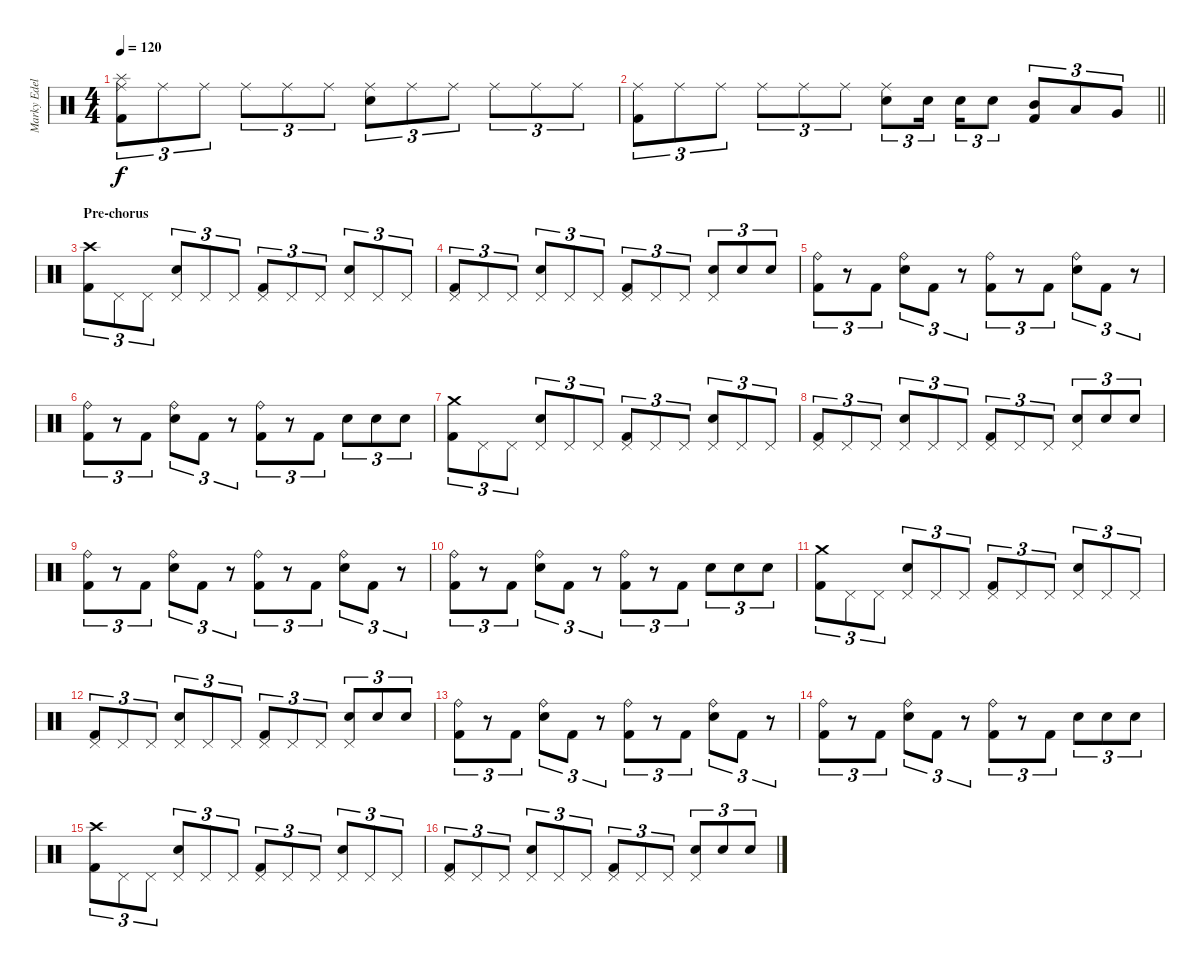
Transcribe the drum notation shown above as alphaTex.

\track ("Marky Edelmann" "Marky Edel") {instrument percussion}
\staff {score}
\articulation defaults
\ts (4 4)
\tempo 120
\clef neutral
\ks c
("Ride (middle)" "Splash (hit)" "Kick (hit) 2").8{tu (3 2) dy f} "Ride (middle)".8{tu (3 2)} "Ride (middle)".8{tu (3 2)} "Ride (middle)".8{tu (3 2)} "Ride (middle)".8{tu (3 2)} "Ride (middle)".8{tu (3 2)} ("Ride (middle)" "Snare (hit) 2").8{tu (3 2)} "Ride (middle)".8{tu (3 2)} "Ride (middle)".8{tu (3 2)} "Ride (middle)".8{tu (3 2)} "Ride (middle)".8{tu (3 2)} "Ride (middle)".8{tu (3 2)} |
\barLineRight lightlight
("Ride (middle)" "Kick (hit) 2").8{tu (3 2)} "Ride (middle)".8{tu (3 2)} "Ride (middle)".8{tu (3 2)} "Ride (middle)".8{tu (3 2)} "Ride (middle)".8{tu (3 2)} "Ride (middle)".8{tu (3 2)} ("Ride (middle)" "Snare (hit) 2").8{tu (3 2)} "Snare (hit) 2".16{tu (3 2) beam splitsecondary} "Snare (hit) 2".16{tu (3 2)} "Snare (hit) 2".8{tu (3 2)} ("Mid Tom (hit)" "Kick (hit) 2").8{tu (3 2)} "Low Tom (hit)".8{tu (3 2)} "Very Low Tom (hit)".8{tu (3 2)} |
\section ("" "Pre-chorus")
("Crash high (hit)" "Kick (hit) 2").8{tu (3 2)} "Pedal Hi-Hat (hit)".8{tu (3 2)} "Pedal Hi-Hat (hit)".8{tu (3 2)} ("Pedal Hi-Hat (hit)" "Snare (hit) 2").8{tu (3 2)} "Pedal Hi-Hat (hit)".8{tu (3 2)} "Pedal Hi-Hat (hit)".8{tu (3 2)} ("Pedal Hi-Hat (hit)" "Kick (hit) 2").8{tu (3 2)} "Pedal Hi-Hat (hit)".8{tu (3 2)} "Pedal Hi-Hat (hit)".8{tu (3 2)} ("Pedal Hi-Hat (hit)" "Snare (hit) 2").8{tu (3 2)} "Pedal Hi-Hat (hit)".8{tu (3 2)} "Pedal Hi-Hat (hit)".8{tu (3 2)} |
("Pedal Hi-Hat (hit)" "Kick (hit) 2").8{tu (3 2)} "Pedal Hi-Hat (hit)".8{tu (3 2)} "Pedal Hi-Hat (hit)".8{tu (3 2)} ("Pedal Hi-Hat (hit)" "Snare (hit) 2").8{tu (3 2)} "Pedal Hi-Hat (hit)".8{tu (3 2)} "Pedal Hi-Hat (hit)".8{tu (3 2)} ("Pedal Hi-Hat (hit)" "Kick (hit) 2").8{tu (3 2)} "Pedal Hi-Hat (hit)".8{tu (3 2)} "Pedal Hi-Hat (hit)".8{tu (3 2)} ("Pedal Hi-Hat (hit)" "Snare (hit) 2").8{tu (3 2)} "Snare (hit) 2".8{tu (3 2)} "Snare (hit) 2".8{tu (3 2)} |
("Ride (bell)" "Kick (hit) 2").8{tu (3 2)} r.8{tu (3 2)} "Kick (hit) 2".8{tu (3 2)} ("Ride (bell)" "Snare (hit) 2").8{tu (3 2)} "Kick (hit) 2".8{tu (3 2)} r.8{tu (3 2)} ("Ride (bell)" "Kick (hit) 2").8{tu (3 2)} r.8{tu (3 2)} "Kick (hit) 2".8{tu (3 2)} ("Ride (bell)" "Snare (hit) 2").8{tu (3 2)} "Kick (hit) 2".8{tu (3 2)} r.8{tu (3 2)} |
("Ride (bell)" "Kick (hit) 2").8{tu (3 2)} r.8{tu (3 2)} "Kick (hit) 2".8{tu (3 2)} ("Ride (bell)" "Snare (hit) 2").8{tu (3 2)} "Kick (hit) 2".8{tu (3 2)} r.8{tu (3 2)} ("Ride (bell)" "Kick (hit) 2").8{tu (3 2)} r.8{tu (3 2)} "Kick (hit) 2".8{tu (3 2)} "Snare (hit) 2".8{tu (3 2)} "Snare (hit) 2".8{tu (3 2)} "Snare (hit) 2".8{tu (3 2)} |
("Crash medium (hit)" "Kick (hit) 2").8{tu (3 2)} "Pedal Hi-Hat (hit)".8{tu (3 2)} "Pedal Hi-Hat (hit)".8{tu (3 2)} ("Pedal Hi-Hat (hit)" "Snare (hit) 2").8{tu (3 2)} "Pedal Hi-Hat (hit)".8{tu (3 2)} "Pedal Hi-Hat (hit)".8{tu (3 2)} ("Pedal Hi-Hat (hit)" "Kick (hit) 2").8{tu (3 2)} "Pedal Hi-Hat (hit)".8{tu (3 2)} "Pedal Hi-Hat (hit)".8{tu (3 2)} ("Pedal Hi-Hat (hit)" "Snare (hit) 2").8{tu (3 2)} "Pedal Hi-Hat (hit)".8{tu (3 2)} "Pedal Hi-Hat (hit)".8{tu (3 2)} |
("Pedal Hi-Hat (hit)" "Kick (hit) 2").8{tu (3 2)} "Pedal Hi-Hat (hit)".8{tu (3 2)} "Pedal Hi-Hat (hit)".8{tu (3 2)} ("Pedal Hi-Hat (hit)" "Snare (hit) 2").8{tu (3 2)} "Pedal Hi-Hat (hit)".8{tu (3 2)} "Pedal Hi-Hat (hit)".8{tu (3 2)} ("Pedal Hi-Hat (hit)" "Kick (hit) 2").8{tu (3 2)} "Pedal Hi-Hat (hit)".8{tu (3 2)} "Pedal Hi-Hat (hit)".8{tu (3 2)} ("Pedal Hi-Hat (hit)" "Snare (hit) 2").8{tu (3 2)} "Snare (hit) 2".8{tu (3 2)} "Snare (hit) 2".8{tu (3 2)} |
("Ride (bell)" "Kick (hit) 2").8{tu (3 2)} r.8{tu (3 2)} "Kick (hit) 2".8{tu (3 2)} ("Ride (bell)" "Snare (hit) 2").8{tu (3 2)} "Kick (hit) 2".8{tu (3 2)} r.8{tu (3 2)} ("Ride (bell)" "Kick (hit) 2").8{tu (3 2)} r.8{tu (3 2)} "Kick (hit) 2".8{tu (3 2)} ("Ride (bell)" "Snare (hit) 2").8{tu (3 2)} "Kick (hit) 2".8{tu (3 2)} r.8{tu (3 2)} |
("Ride (bell)" "Kick (hit) 2").8{tu (3 2)} r.8{tu (3 2)} "Kick (hit) 2".8{tu (3 2)} ("Ride (bell)" "Snare (hit) 2").8{tu (3 2)} "Kick (hit) 2".8{tu (3 2)} r.8{tu (3 2)} ("Ride (bell)" "Kick (hit) 2").8{tu (3 2)} r.8{tu (3 2)} "Kick (hit) 2".8{tu (3 2)} "Snare (hit) 2".8{tu (3 2)} "Snare (hit) 2".8{tu (3 2)} "Snare (hit) 2".8{tu (3 2)} |
("Crash medium (hit)" "Kick (hit) 2").8{tu (3 2)} "Pedal Hi-Hat (hit)".8{tu (3 2)} "Pedal Hi-Hat (hit)".8{tu (3 2)} ("Pedal Hi-Hat (hit)" "Snare (hit) 2").8{tu (3 2)} "Pedal Hi-Hat (hit)".8{tu (3 2)} "Pedal Hi-Hat (hit)".8{tu (3 2)} ("Pedal Hi-Hat (hit)" "Kick (hit) 2").8{tu (3 2)} "Pedal Hi-Hat (hit)".8{tu (3 2)} "Pedal Hi-Hat (hit)".8{tu (3 2)} ("Pedal Hi-Hat (hit)" "Snare (hit) 2").8{tu (3 2)} "Pedal Hi-Hat (hit)".8{tu (3 2)} "Pedal Hi-Hat (hit)".8{tu (3 2)} |
("Pedal Hi-Hat (hit)" "Kick (hit) 2").8{tu (3 2)} "Pedal Hi-Hat (hit)".8{tu (3 2)} "Pedal Hi-Hat (hit)".8{tu (3 2)} ("Pedal Hi-Hat (hit)" "Snare (hit) 2").8{tu (3 2)} "Pedal Hi-Hat (hit)".8{tu (3 2)} "Pedal Hi-Hat (hit)".8{tu (3 2)} ("Pedal Hi-Hat (hit)" "Kick (hit) 2").8{tu (3 2)} "Pedal Hi-Hat (hit)".8{tu (3 2)} "Pedal Hi-Hat (hit)".8{tu (3 2)} ("Pedal Hi-Hat (hit)" "Snare (hit) 2").8{tu (3 2)} "Snare (hit) 2".8{tu (3 2)} "Snare (hit) 2".8{tu (3 2)} |
("Ride (bell)" "Kick (hit) 2").8{tu (3 2)} r.8{tu (3 2)} "Kick (hit) 2".8{tu (3 2)} ("Ride (bell)" "Snare (hit) 2").8{tu (3 2)} "Kick (hit) 2".8{tu (3 2)} r.8{tu (3 2)} ("Ride (bell)" "Kick (hit) 2").8{tu (3 2)} r.8{tu (3 2)} "Kick (hit) 2".8{tu (3 2)} ("Ride (bell)" "Snare (hit) 2").8{tu (3 2)} "Kick (hit) 2".8{tu (3 2)} r.8{tu (3 2)} |
("Ride (bell)" "Kick (hit) 2").8{tu (3 2)} r.8{tu (3 2)} "Kick (hit) 2".8{tu (3 2)} ("Ride (bell)" "Snare (hit) 2").8{tu (3 2)} "Kick (hit) 2".8{tu (3 2)} r.8{tu (3 2)} ("Ride (bell)" "Kick (hit) 2").8{tu (3 2)} r.8{tu (3 2)} "Kick (hit) 2".8{tu (3 2)} "Snare (hit) 2".8{tu (3 2)} "Snare (hit) 2".8{tu (3 2)} "Snare (hit) 2".8{tu (3 2)} |
("Crash high (hit)" "Kick (hit) 2").8{tu (3 2)} "Pedal Hi-Hat (hit)".8{tu (3 2)} "Pedal Hi-Hat (hit)".8{tu (3 2)} ("Pedal Hi-Hat (hit)" "Snare (hit) 2").8{tu (3 2)} "Pedal Hi-Hat (hit)".8{tu (3 2)} "Pedal Hi-Hat (hit)".8{tu (3 2)} ("Pedal Hi-Hat (hit)" "Kick (hit) 2").8{tu (3 2)} "Pedal Hi-Hat (hit)".8{tu (3 2)} "Pedal Hi-Hat (hit)".8{tu (3 2)} ("Pedal Hi-Hat (hit)" "Snare (hit) 2").8{tu (3 2)} "Pedal Hi-Hat (hit)".8{tu (3 2)} "Pedal Hi-Hat (hit)".8{tu (3 2)} |
("Pedal Hi-Hat (hit)" "Kick (hit) 2").8{tu (3 2)} "Pedal Hi-Hat (hit)".8{tu (3 2)} "Pedal Hi-Hat (hit)".8{tu (3 2)} ("Pedal Hi-Hat (hit)" "Snare (hit) 2").8{tu (3 2)} "Pedal Hi-Hat (hit)".8{tu (3 2)} "Pedal Hi-Hat (hit)".8{tu (3 2)} ("Pedal Hi-Hat (hit)" "Kick (hit) 2").8{tu (3 2)} "Pedal Hi-Hat (hit)".8{tu (3 2)} "Pedal Hi-Hat (hit)".8{tu (3 2)} ("Pedal Hi-Hat (hit)" "Snare (hit) 2").8{tu (3 2)} "Snare (hit) 2".8{tu (3 2)} "Snare (hit) 2".8{tu (3 2)}
